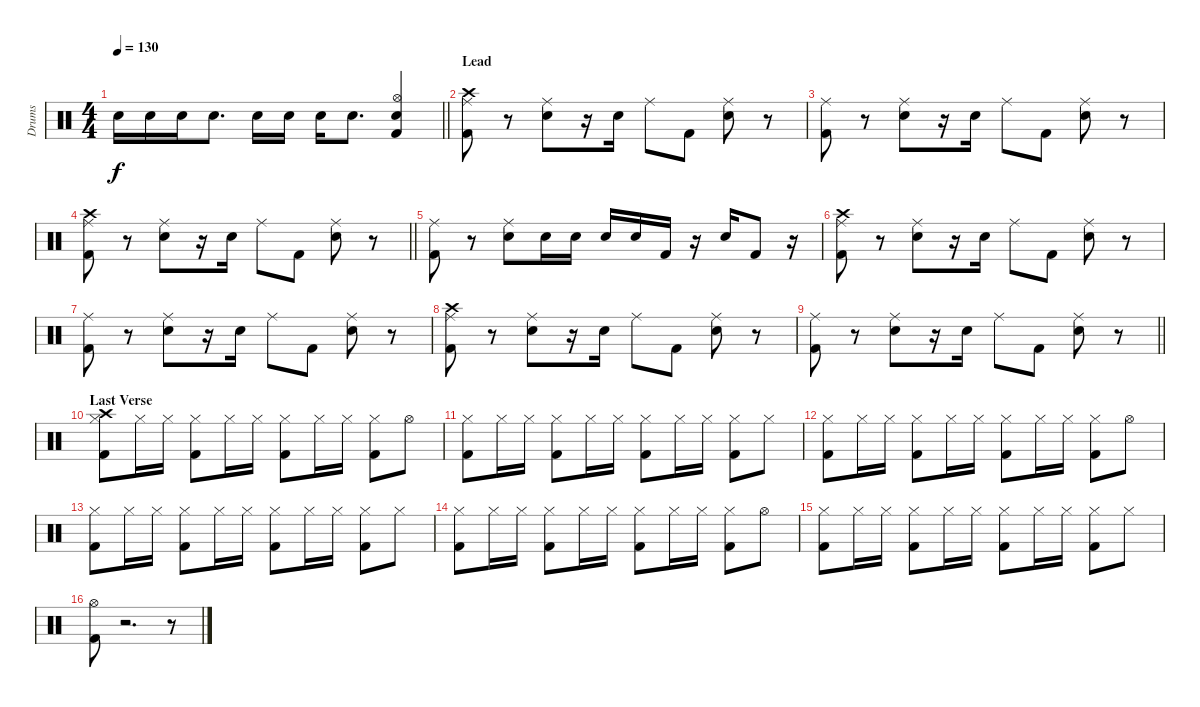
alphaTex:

\track ("Drums" "Drums") {instrument percussion}
\staff {score}
\articulation defaults
\ts (4 4)
\tempo 130
\clef neutral
\barLineRight lightlight
\ks c "Snare (hit) 2".16{dy f} "Snare (hit) 2".16 "Snare (hit) 2".16 "Snare (hit) 2".8{d} "Snare (hit) 2".16 "Snare (hit) 2".16 "Snare (hit) 2".16 "Snare (hit) 2".8{d}
("Hi-Hat (open)" "Snare (hit) 2" "Kick (hit) 2").4 |
\section ("" "Lead")
("Crash high (hit)" "Ride (middle)" "Kick (hit) 2").8 r.8 ("Ride (middle)" "Snare (hit) 2").8 r.16 "Snare (hit) 2".16 "Ride (middle)".8 "Kick (hit) 2".8 ("Ride (middle)" "Snare (hit) 2").8 r.8 |
("Ride (middle)" "Kick (hit) 2").8 r.8 ("Ride (middle)" "Snare (hit) 2").8 r.16 "Snare (hit) 2".16 "Ride (middle)".8 "Kick (hit) 2".8 ("Ride (middle)" "Snare (hit) 2").8 r.8 |
\barLineRight lightlight
("Crash high (hit)" "Ride (middle)" "Kick (hit) 2").8 r.8 ("Ride (middle)" "Snare (hit) 2").8 r.16 "Snare (hit) 2".16 "Ride (middle)".8 "Kick (hit) 2".8 ("Ride (middle)" "Snare (hit) 2").8 r.8 |
\section ("" "")
("Ride (middle)" "Kick (hit) 2").8 r.8 ("Ride (middle)" "Snare (hit) 2").8 "Snare (hit) 2".16 "Snare (hit) 2".16 "Snare (hit) 2".16 "Snare (hit) 2".16 "Kick (hit) 2".16 r.16 "Snare (hit) 2".16 "Kick (hit) 2".8 r.16 |
("Crash high (hit)" "Ride (middle)" "Kick (hit) 2").8 r.8 ("Ride (middle)" "Snare (hit) 2").8 r.16 "Snare (hit) 2".16 "Ride (middle)".8 "Kick (hit) 2".8 ("Ride (middle)" "Snare (hit) 2").8 r.8 |
("Ride (middle)" "Kick (hit) 2").8 r.8 ("Ride (middle)" "Snare (hit) 2").8 r.16 "Snare (hit) 2".16 "Ride (middle)".8 "Kick (hit) 2".8 ("Ride (middle)" "Snare (hit) 2").8 r.8 |
("Crash high (hit)" "Ride (middle)" "Kick (hit) 2").8 r.8 ("Ride (middle)" "Snare (hit) 2").8 r.16 "Snare (hit) 2".16 "Ride (middle)".8 "Kick (hit) 2".8 ("Ride (middle)" "Snare (hit) 2").8 r.8 |
\barLineRight lightlight
("Ride (middle)" "Kick (hit) 2").8 r.8 ("Ride (middle)" "Snare (hit) 2").8 r.16 "Snare (hit) 2".16 "Ride (middle)".8 "Kick (hit) 2".8 ("Ride (middle)" "Snare (hit) 2").8 r.8 |
\section ("" "Last Verse")
("Crash high (hit)" "Hi-Hat (closed)" "Kick (hit) 2").8 "Hi-Hat (closed)".16 "Hi-Hat (closed)".16 ("Hi-Hat (closed)" "Kick (hit) 2").8 "Hi-Hat (closed)".16 "Hi-Hat (closed)".16 ("Hi-Hat (closed)" "Kick (hit) 2").8 "Hi-Hat (closed)".16 "Hi-Hat (closed)".16 ("Hi-Hat (closed)" "Kick (hit) 2").8 "Hi-Hat (open)".8 |
("Hi-Hat (closed)" "Kick (hit) 2").8 "Hi-Hat (closed)".16 "Hi-Hat (closed)".16 ("Hi-Hat (closed)" "Kick (hit) 2").8 "Hi-Hat (closed)".16 "Hi-Hat (closed)".16 ("Hi-Hat (closed)" "Kick (hit) 2").8 "Hi-Hat (closed)".16 "Hi-Hat (closed)".16 ("Hi-Hat (closed)" "Kick (hit) 2").8 "Hi-Hat (closed)".8 |
("Hi-Hat (closed)" "Kick (hit) 2").8 "Hi-Hat (closed)".16 "Hi-Hat (closed)".16 ("Hi-Hat (closed)" "Kick (hit) 2").8 "Hi-Hat (closed)".16 "Hi-Hat (closed)".16 ("Hi-Hat (closed)" "Kick (hit) 2").8 "Hi-Hat (closed)".16 "Hi-Hat (closed)".16 ("Hi-Hat (closed)" "Kick (hit) 2").8 "Hi-Hat (open)".8 |
("Hi-Hat (closed)" "Kick (hit) 2").8 "Hi-Hat (closed)".16 "Hi-Hat (closed)".16 ("Hi-Hat (closed)" "Kick (hit) 2").8 "Hi-Hat (closed)".16 "Hi-Hat (closed)".16 ("Hi-Hat (closed)" "Kick (hit) 2").8 "Hi-Hat (closed)".16 "Hi-Hat (closed)".16 ("Hi-Hat (closed)" "Kick (hit) 2").8 "Hi-Hat (closed)".8 |
("Hi-Hat (closed)" "Kick (hit) 2").8 "Hi-Hat (closed)".16 "Hi-Hat (closed)".16 ("Hi-Hat (closed)" "Kick (hit) 2").8 "Hi-Hat (closed)".16 "Hi-Hat (closed)".16 ("Hi-Hat (closed)" "Kick (hit) 2").8 "Hi-Hat (closed)".16 "Hi-Hat (closed)".16 ("Hi-Hat (closed)" "Kick (hit) 2").8 "Hi-Hat (open)".8 |
("Hi-Hat (closed)" "Kick (hit) 2").8 "Hi-Hat (closed)".16 "Hi-Hat (closed)".16 ("Hi-Hat (closed)" "Kick (hit) 2").8 "Hi-Hat (closed)".16 "Hi-Hat (closed)".16 ("Hi-Hat (closed)" "Kick (hit) 2").8 "Hi-Hat (closed)".16 "Hi-Hat (closed)".16 ("Hi-Hat (closed)" "Kick (hit) 2").8 "Hi-Hat (closed)".8 |
("Hi-Hat (open)" "Kick (hit) 2").8 r.2{d} r.8
